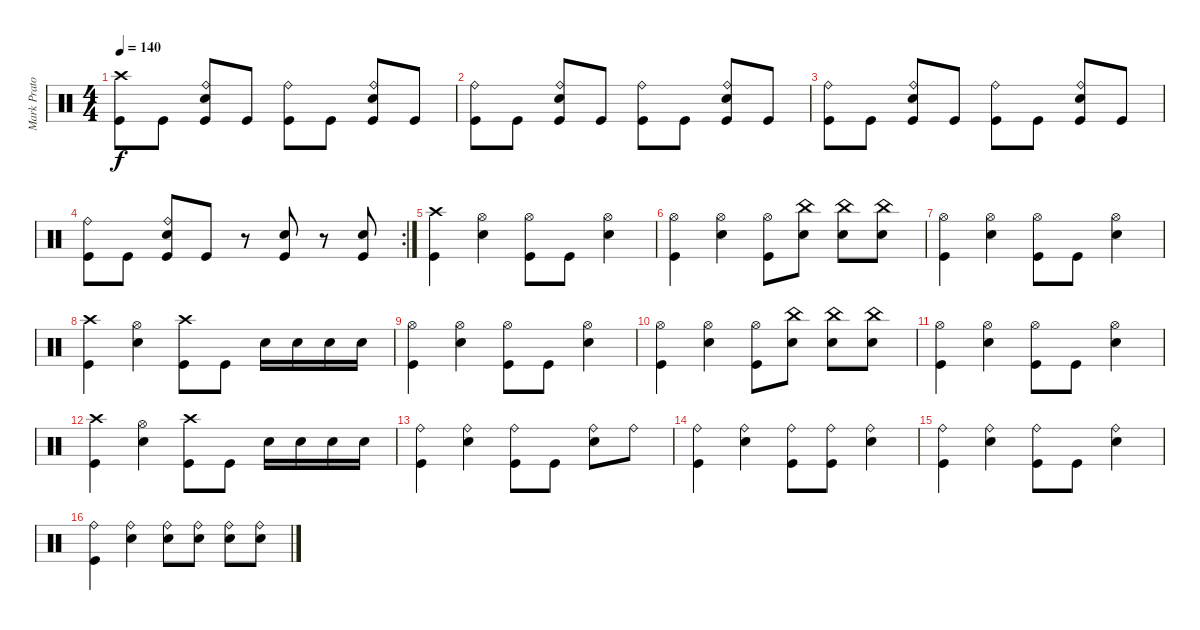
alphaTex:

\track ("Mark Prator" "Mark Prato") {instrument percussion}
\staff {score}
\articulation defaults
\ts (4 4)
\tempo 140
\clef neutral
\ks c
("Crash high (hit)" "Kick (hit)").8{dy f} "Kick (hit)".8 ("Ride (bell)" "Snare (hit) 2" "Kick (hit)").8 "Kick (hit)".8 ("Ride (bell)" "Kick (hit)").8 "Kick (hit)".8 ("Ride (bell)" "Snare (hit) 2" "Kick (hit)").8 "Kick (hit)".8 |
("Ride (bell)" "Kick (hit)").8 "Kick (hit)".8 ("Ride (bell)" "Snare (hit) 2" "Kick (hit)").8 "Kick (hit)".8 ("Ride (bell)" "Kick (hit)").8 "Kick (hit)".8 ("Ride (bell)" "Snare (hit) 2" "Kick (hit)").8 "Kick (hit)".8 |
("Ride (bell)" "Kick (hit)").8 "Kick (hit)".8 ("Ride (bell)" "Snare (hit) 2" "Kick (hit)").8 "Kick (hit)".8 ("Ride (bell)" "Kick (hit)").8 "Kick (hit)".8 ("Ride (bell)" "Snare (hit) 2" "Kick (hit)").8 "Kick (hit)".8 |
\rc 2
("Ride (bell)" "Kick (hit)").8 "Kick (hit)".8 ("Ride (bell)" "Snare (hit) 2" "Kick (hit)").8 "Kick (hit)".8 r.8 ("Snare (hit) 2" "Kick (hit)").8 r.8 ("Snare (hit) 2" "Kick (hit)").8 |
("Crash high (hit)" "Kick (hit)").4 ("Hi-Hat (open)" "Snare (hit) 2").4 ("Hi-Hat (open)" "Kick (hit)").8 "Kick (hit)".8 ("Hi-Hat (open)" "Snare (hit) 2").4 |
("Hi-Hat (open)" "Kick (hit)").4 ("Hi-Hat (open)" "Snare (hit) 2").4 ("Hi-Hat (open)" "Kick (hit)").8 ("China (hit)" "Snare (hit) 2").8 ("China (hit)" "Snare (hit) 2").8 ("China (hit)" "Snare (hit) 2").8 |
("Hi-Hat (open)" "Kick (hit)").4 ("Hi-Hat (open)" "Snare (hit) 2").4 ("Hi-Hat (open)" "Kick (hit)").8 "Kick (hit)".8 ("Hi-Hat (open)" "Snare (hit) 2").4 |
("Crash high (hit)" "Kick (hit)").4 ("Hi-Hat (open)" "Snare (hit) 2").4 ("Crash high (hit)" "Kick (hit)").8 "Kick (hit)".8 "Snare (hit) 2".16 "Snare (hit) 2".16 "Snare (hit) 2".16 "Snare (hit) 2".16 |
("Hi-Hat (open)" "Kick (hit)").4 ("Hi-Hat (open)" "Snare (hit) 2").4 ("Hi-Hat (open)" "Kick (hit)").8 "Kick (hit)".8 ("Hi-Hat (open)" "Snare (hit) 2").4 |
("Hi-Hat (open)" "Kick (hit)").4 ("Hi-Hat (open)" "Snare (hit) 2").4 ("Hi-Hat (open)" "Kick (hit)").8 ("China (hit)" "Snare (hit) 2").8 ("China (hit)" "Snare (hit) 2").8 ("China (hit)" "Snare (hit) 2").8 |
("Hi-Hat (open)" "Kick (hit)").4 ("Hi-Hat (open)" "Snare (hit) 2").4 ("Hi-Hat (open)" "Kick (hit)").8 "Kick (hit)".8 ("Hi-Hat (open)" "Snare (hit) 2").4 |
("Crash high (hit)" "Kick (hit)").4 ("Hi-Hat (open)" "Snare (hit) 2").4 ("Crash high (hit)" "Kick (hit)").8 "Kick (hit)".8 "Snare (hit) 2".16 "Snare (hit) 2".16 "Snare (hit) 2".16 "Snare (hit) 2".16 |
("Ride (bell)" "Kick (hit)").4 ("Ride (bell)" "Snare (hit) 2").4 ("Ride (bell)" "Kick (hit)").8 "Kick (hit)".8 ("Ride (bell)" "Snare (hit) 2").8 "Ride (bell)".8 |
("Ride (bell)" "Kick (hit)").4 ("Ride (bell)" "Snare (hit) 2").4 ("Ride (bell)" "Kick (hit)").8 ("Ride (bell)" "Kick (hit)").8 ("Ride (bell)" "Snare (hit) 2").4 |
("Ride (bell)" "Kick (hit)").4 ("Ride (bell)" "Snare (hit) 2").4 ("Ride (bell)" "Kick (hit)").8 "Kick (hit)".8 ("Ride (bell)" "Snare (hit) 2").4 |
("Ride (bell)" "Kick (hit)").4 ("Ride (bell)" "Snare (hit) 2").4 ("Ride (bell)" "Snare (hit) 2").8 ("Ride (bell)" "Snare (hit) 2").8 ("Ride (bell)" "Snare (hit) 2").8 ("Ride (bell)" "Snare (hit) 2").8
